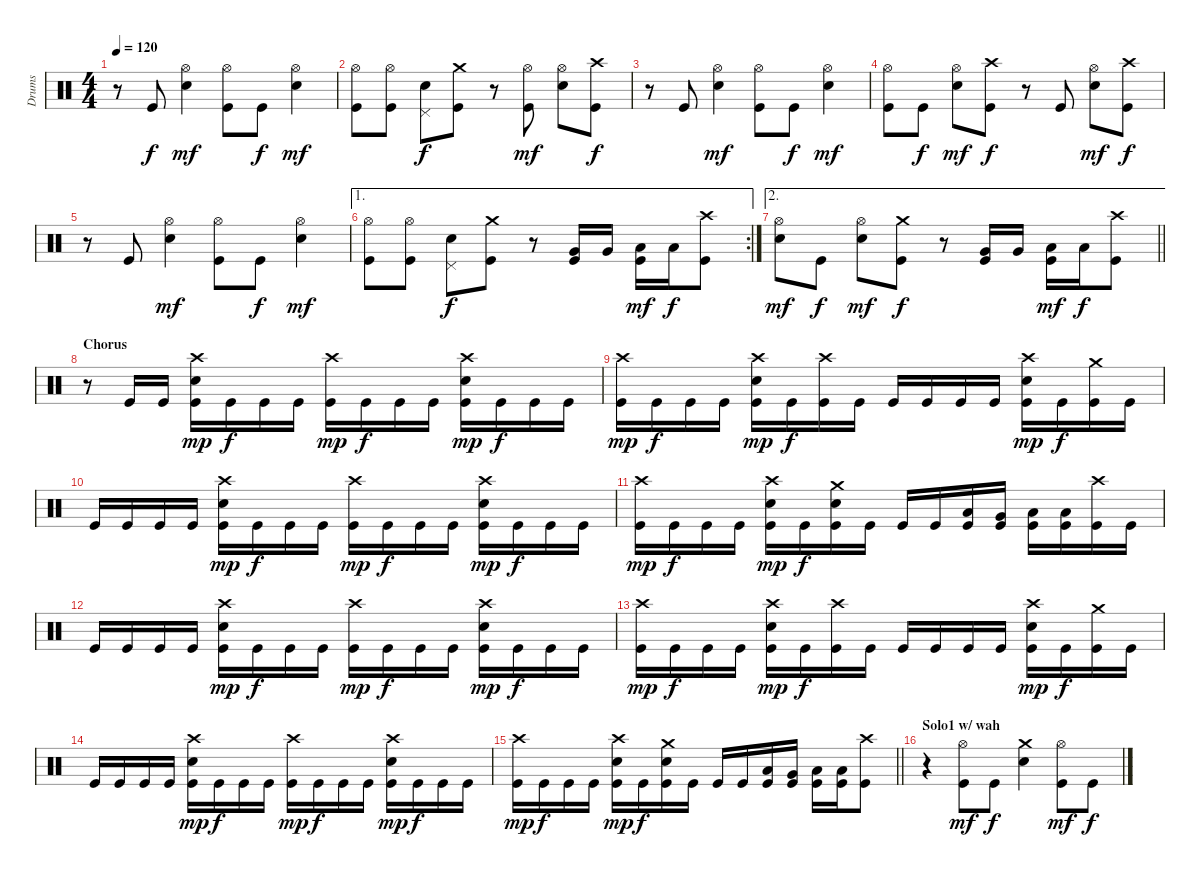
\track ("Drums" "Drums") {instrument percussion}
\staff {score}
\articulation defaults
\ts (4 4)
\tempo 120
\clef neutral
\ks c
r.8{dy f} "Kick (hit)".8 ("Hi-Hat (open)" "Snare (hit) 2").4{dy mf} ("Hi-Hat (open)" "Kick (hit)").8 "Kick (hit)".8{dy f} ("Hi-Hat (open)" "Snare (hit) 2").4{dy mf} |
("Hi-Hat (open)" "Kick (hit)").8 ("Hi-Hat (open)" "Kick (hit)").8 ("Snare (hit) 2" "Pedal Hi-Hat (hit)").8{dy f} ("Crash medium (hit)" "Kick (hit)").8 r.8 ("Hi-Hat (open)" "Kick (hit)").8{dy mf} ("Hi-Hat (open)" "Snare (hit) 2").8 ("Crash high (hit)" "Kick (hit)").8{dy f} |
r.8 "Kick (hit)".8 ("Hi-Hat (open)" "Snare (hit) 2").4{dy mf} ("Hi-Hat (open)" "Kick (hit)").8 "Kick (hit)".8{dy f} ("Hi-Hat (open)" "Snare (hit) 2").4{dy mf} |
("Hi-Hat (open)" "Kick (hit)").8 "Kick (hit)".8{dy f} ("Hi-Hat (open)" "Snare (hit) 2").8{dy mf} ("Crash high (hit)" "Kick (hit)").8{dy f} r.8 "Kick (hit)".8 ("Hi-Hat (open)" "Snare (hit) 2").8{dy mf} ("Crash high (hit)" "Kick (hit)").8{dy f} |
r.8 "Kick (hit)".8 ("Hi-Hat (open)" "Snare (hit) 2").4{dy mf} ("Hi-Hat (open)" "Kick (hit)").8 "Kick (hit)".8{dy f} ("Hi-Hat (open)" "Snare (hit) 2").4{dy mf} |
\ae 1
\rc 2
("Hi-Hat (open)" "Kick (hit)").8 ("Hi-Hat (open)" "Kick (hit)").8 ("Snare (hit) 2" "Pedal Hi-Hat (hit)").8{dy f} ("Crash medium (hit)" "Kick (hit)").8 r.8 ("Very Low Tom (hit)" "Kick (hit)").16 "Very Low Tom (hit)".16 ("Low Floor Tom (hit)" "Kick (hit)").16{dy mf} "Low Floor Tom (hit)".16{dy f} ("Crash high (hit)" "Kick (hit)").8 |
\ae 2
\barLineRight lightlight
("Hi-Hat (open)" "Snare (hit) 2").8{dy mf} "Kick (hit)".8{dy f} ("Hi-Hat (open)" "Snare (hit) 2").8{dy mf} ("Crash medium (hit)" "Kick (hit)").8{dy f} r.8 ("Very Low Tom (hit)" "Kick (hit)").16 "Very Low Tom (hit)".16 ("Low Floor Tom (hit)" "Kick (hit)").16{dy mf} "Low Floor Tom (hit)".16{dy f} ("Crash high (hit)" "Kick (hit)").8 |
\section ("" "Chorus")
r.8 "Kick (hit)".16 "Kick (hit)".16 ("Crash high (hit)" "Snare (hit) 2" "Kick (hit)").16{dy mp} "Kick (hit)".16{dy f} "Kick (hit)".16 "Kick (hit)".16 ("Crash high (hit)" "Kick (hit)").16{dy mp} "Kick (hit)".16{dy f} "Kick (hit)".16 "Kick (hit)".16 ("Crash high (hit)" "Snare (hit) 2" "Kick (hit)").16{dy mp} "Kick (hit)".16{dy f} "Kick (hit)".16 "Kick (hit)".16 |
("Crash high (hit)" "Kick (hit)").16{dy mp} "Kick (hit)".16{dy f} "Kick (hit)".16 "Kick (hit)".16 ("Crash high (hit)" "Snare (hit) 2" "Kick (hit)").16{dy mp} "Kick (hit)".16{dy f} ("Crash high (hit)" "Kick (hit)").16 "Kick (hit)".16 "Kick (hit)".16 "Kick (hit)".16 "Kick (hit)".16 "Kick (hit)".16 ("Crash high (hit)" "Snare (hit) 2" "Kick (hit)").16{dy mp} "Kick (hit)".16{dy f} ("Crash medium (hit)" "Kick (hit)").16 "Kick (hit)".16 |
"Kick (hit)".16 "Kick (hit)".16 "Kick (hit)".16 "Kick (hit)".16 ("Crash high (hit)" "Snare (hit) 2" "Kick (hit)").16{dy mp} "Kick (hit)".16{dy f} "Kick (hit)".16 "Kick (hit)".16 ("Crash high (hit)" "Kick (hit)").16{dy mp} "Kick (hit)".16{dy f} "Kick (hit)".16 "Kick (hit)".16 ("Crash high (hit)" "Snare (hit) 2" "Kick (hit)").16{dy mp} "Kick (hit)".16{dy f} "Kick (hit)".16 "Kick (hit)".16 |
("Crash high (hit)" "Kick (hit)").16{dy mp} "Kick (hit)".16{dy f} "Kick (hit)".16 "Kick (hit)".16 ("Crash high (hit)" "Snare (hit) 2" "Kick (hit)").16{dy mp} "Kick (hit)".16{dy f} ("Crash medium (hit)" "Snare (hit) 2" "Kick (hit)").16 "Kick (hit)".16 "Kick (hit)".16 "Kick (hit)".16 ("Low Tom (hit)" "Kick (hit)").16 ("Very Low Tom (hit)" "Kick (hit)").16 ("Low Floor Tom (hit)" "Kick (hit)").16 ("Low Floor Tom (hit)" "Kick (hit)").16 ("Crash high (hit)" "Kick (hit)").16 "Kick (hit)".16 |
"Kick (hit)".16 "Kick (hit)".16 "Kick (hit)".16 "Kick (hit)".16 ("Crash high (hit)" "Snare (hit) 2" "Kick (hit)").16{dy mp} "Kick (hit)".16{dy f} "Kick (hit)".16 "Kick (hit)".16 ("Crash high (hit)" "Kick (hit)").16{dy mp} "Kick (hit)".16{dy f} "Kick (hit)".16 "Kick (hit)".16 ("Crash high (hit)" "Snare (hit) 2" "Kick (hit)").16{dy mp} "Kick (hit)".16{dy f} "Kick (hit)".16 "Kick (hit)".16 |
("Crash high (hit)" "Kick (hit)").16{dy mp} "Kick (hit)".16{dy f} "Kick (hit)".16 "Kick (hit)".16 ("Crash high (hit)" "Snare (hit) 2" "Kick (hit)").16{dy mp} "Kick (hit)".16{dy f} ("Crash high (hit)" "Kick (hit)").16 "Kick (hit)".16 "Kick (hit)".16 "Kick (hit)".16 "Kick (hit)".16 "Kick (hit)".16 ("Crash high (hit)" "Snare (hit) 2" "Kick (hit)").16{dy mp} "Kick (hit)".16{dy f} ("Crash medium (hit)" "Kick (hit)").16 "Kick (hit)".16 |
"Kick (hit)".16 "Kick (hit)".16 "Kick (hit)".16 "Kick (hit)".16 ("Crash high (hit)" "Snare (hit) 2" "Kick (hit)").16{dy mp} "Kick (hit)".16{dy f} "Kick (hit)".16 "Kick (hit)".16 ("Crash high (hit)" "Kick (hit)").16{dy mp} "Kick (hit)".16{dy f} "Kick (hit)".16 "Kick (hit)".16 ("Crash high (hit)" "Snare (hit) 2" "Kick (hit)").16{dy mp} "Kick (hit)".16{dy f} "Kick (hit)".16 "Kick (hit)".16 |
\barLineRight lightlight
("Crash high (hit)" "Kick (hit)").16{dy mp} "Kick (hit)".16{dy f} "Kick (hit)".16 "Kick (hit)".16 ("Crash high (hit)" "Snare (hit) 2" "Kick (hit)").16{dy mp} "Kick (hit)".16{dy f} ("Crash medium (hit)" "Snare (hit) 2" "Kick (hit)").16 "Kick (hit)".16 "Kick (hit)".16 "Kick (hit)".16 ("Low Tom (hit)" "Kick (hit)").16 ("Very Low Tom (hit)" "Kick (hit)").16 ("Low Floor Tom (hit)" "Kick (hit)").16 ("Low Floor Tom (hit)" "Kick (hit)").16 ("Crash high (hit)" "Kick (hit)").8 |
\section ("" "Solo1 w/ wah")
r.4 ("Hi-Hat (open)" "Kick (hit)").8{dy mf} "Kick (hit)".8{dy f} ("Crash medium (hit)" "Snare (hit) 2").4 ("Hi-Hat (open)" "Kick (hit)").8{dy mf} "Kick (hit)".8{dy f}
